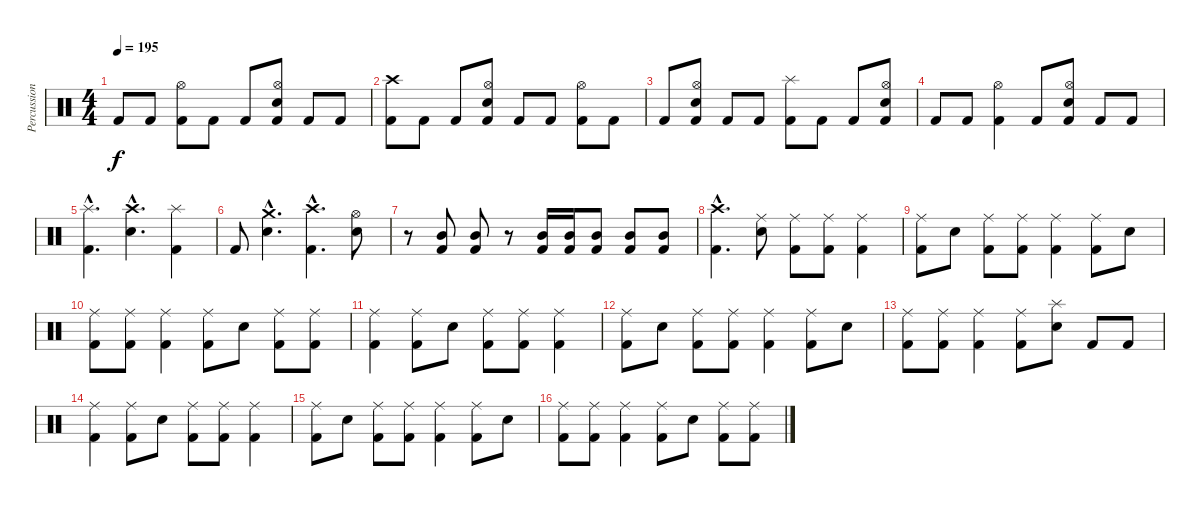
\track ("Percussion" "Percussion") {instrument percussion}
\staff {score}
\articulation defaults
\ts (4 4)
\tempo 195
\clef neutral
\ks c "Kick (hit) 2".8{dy f} "Kick (hit) 2".8
("Hi-Hat (open)" "Kick (hit) 2").8 "Kick (hit) 2".8 "Kick (hit) 2".8 ("Hi-Hat (open)" "Snare (hit) 2" "Kick (hit) 2").8 "Kick (hit) 2".8 "Kick (hit) 2".8 |
("Crash high (hit)" "Kick (hit) 2").8 "Kick (hit) 2".8 "Kick (hit) 2".8 ("Hi-Hat (open)" "Snare (hit) 2" "Kick (hit) 2").8 "Kick (hit) 2".8 "Kick (hit) 2".8 ("Hi-Hat (open)" "Kick (hit) 2").8 "Kick (hit) 2".8 |
"Kick (hit) 2".8 ("Hi-Hat (open)" "Snare (hit) 2" "Kick (hit) 2").8 "Kick (hit) 2".8 "Kick (hit) 2".8 ("Splash (hit)" "Kick (hit) 2").8 "Kick (hit) 2".8 "Kick (hit) 2".8 ("Hi-Hat (open)" "Snare (hit) 2" "Kick (hit) 2").8 |
"Kick (hit) 2".8 "Kick (hit) 2".8 ("Hi-Hat (open)" "Kick (hit) 2").4 "Kick (hit) 2".8 ("Hi-Hat (open)" "Snare (hit) 2" "Kick (hit) 2").8 "Kick (hit) 2".8 "Kick (hit) 2".8 |
("Splash (hit)"{hac} "Kick (hit) 2"{hac}).4{d} ("Crash high (hit)"{hac} "Snare (hit) 2"{hac}).4{d} ("Splash (hit)" "Kick (hit) 2").4 |
"Kick (hit) 2".8 ("Crash medium (hit)"{hac} "Snare (hit) 2"{hac}).4{d} ("Crash high (hit)"{hac} "Kick (hit) 2"{hac}).4{d} ("Hi-Hat (open)" "Snare (hit) 2").8 |
r.8 ("Mid Tom (hit)" "Kick (hit) 2").8 ("Mid Tom (hit)" "Kick (hit) 2").8 r.8 ("Mid Tom (hit)" "Kick (hit) 2").16 ("Mid Tom (hit)" "Kick (hit) 2").16 ("Mid Tom (hit)" "Kick (hit) 2").8 ("Mid Tom (hit)" "Kick (hit) 2").8 ("Mid Tom (hit)" "Kick (hit) 2").8 |
("Crash high (hit)"{hac} "Kick (hit) 2"{hac}).4{d} ("Ride (middle)" "Snare (hit) 2").8 ("Ride (middle)" "Kick (hit) 2").8 ("Ride (middle)" "Kick (hit) 2").8 ("Ride (middle)" "Kick (hit) 2").4 |
("Ride (middle)" "Kick (hit) 2").8 "Snare (hit) 2".8 ("Ride (middle)" "Kick (hit) 2").8 ("Ride (middle)" "Kick (hit) 2").8 ("Ride (middle)" "Kick (hit) 2").4 ("Ride (middle)" "Kick (hit) 2").8 "Snare (hit) 2".8 |
("Ride (middle)" "Kick (hit) 2").8 ("Ride (middle)" "Kick (hit) 2").8 ("Ride (middle)" "Kick (hit) 2").4 ("Ride (middle)" "Kick (hit) 2").8 "Snare (hit) 2".8 ("Ride (middle)" "Kick (hit) 2").8 ("Ride (middle)" "Kick (hit) 2").8 |
("Ride (middle)" "Kick (hit) 2").4 ("Ride (middle)" "Kick (hit) 2").8 "Snare (hit) 2".8 ("Ride (middle)" "Kick (hit) 2").8 ("Ride (middle)" "Kick (hit) 2").8 ("Ride (middle)" "Kick (hit) 2").4 |
("Ride (middle)" "Kick (hit) 2").8 "Snare (hit) 2".8 ("Ride (middle)" "Kick (hit) 2").8 ("Ride (middle)" "Kick (hit) 2").8 ("Ride (middle)" "Kick (hit) 2").4 ("Ride (middle)" "Kick (hit) 2").8 "Snare (hit) 2".8 |
("Ride (middle)" "Kick (hit) 2").8 ("Ride (middle)" "Kick (hit) 2").8 ("Ride (middle)" "Kick (hit) 2").4 ("Ride (middle)" "Kick (hit) 2").8 ("Splash (hit)" "Snare (hit) 2").8 "Kick (hit) 2".8 "Kick (hit) 2".8 |
("Ride (middle)" "Kick (hit) 2").4 ("Ride (middle)" "Kick (hit) 2").8 "Snare (hit) 2".8 ("Ride (middle)" "Kick (hit) 2").8 ("Ride (middle)" "Kick (hit) 2").8 ("Ride (middle)" "Kick (hit) 2").4 |
("Ride (middle)" "Kick (hit) 2").8 "Snare (hit) 2".8 ("Ride (middle)" "Kick (hit) 2").8 ("Ride (middle)" "Kick (hit) 2").8 ("Ride (middle)" "Kick (hit) 2").4 ("Ride (middle)" "Kick (hit) 2").8 "Snare (hit) 2".8 |
("Ride (middle)" "Kick (hit) 2").8 ("Ride (middle)" "Kick (hit) 2").8 ("Ride (middle)" "Kick (hit) 2").4 ("Ride (middle)" "Kick (hit) 2").8 "Snare (hit) 2".8 ("Ride (middle)" "Kick (hit) 2").8 ("Ride (middle)" "Kick (hit) 2").8
